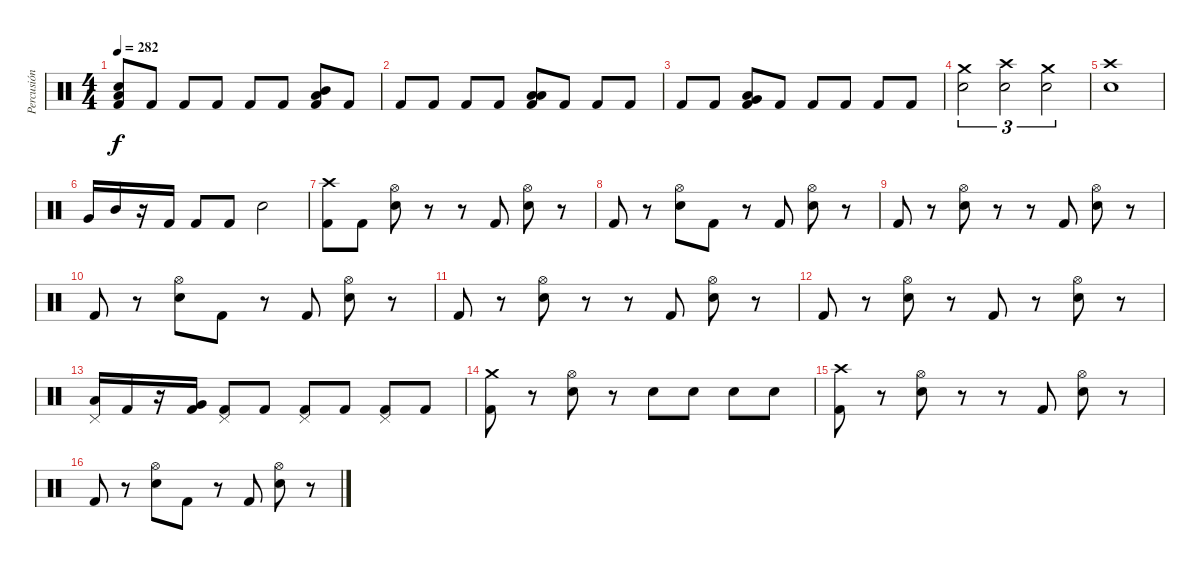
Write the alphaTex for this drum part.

\track ("Percusión" "Percusión") {instrument percussion}
\staff {score}
\articulation defaults
\ts (4 4)
\tempo 282
\clef neutral
\ks c
("Kick (hit) 2" "Snare (hit) 2" "Low Floor Tom (hit)").8{dy f} "Kick (hit) 2".8 "Kick (hit) 2".8 "Kick (hit) 2".8 "Kick (hit) 2".8 "Kick (hit) 2".8 ("Kick (hit) 2" "Mid Tom (hit)" "Low Floor Tom (hit)").8 "Kick (hit) 2".8 |
"Kick (hit) 2".8 "Kick (hit) 2".8 "Kick (hit) 2".8 "Kick (hit) 2".8 ("Kick (hit) 2" "Low Tom (hit)" "Low Floor Tom (hit)").8 "Kick (hit) 2".8 "Kick (hit) 2".8 "Kick (hit) 2".8 |
"Kick (hit) 2".8 "Kick (hit) 2".8 ("Kick (hit) 2" "Very Low Tom (hit)" "Low Floor Tom (hit)").8 "Kick (hit) 2".8 "Kick (hit) 2".8 "Kick (hit) 2".8 "Kick (hit) 2".8 "Kick (hit) 2".8 |
("Snare (hit) 2" "Crash medium (hit)").2{tu (3 2)} ("Snare (hit) 2" "Crash high (hit)").2{tu (3 2)} ("Snare (hit) 2" "Crash medium (hit)").2{tu (3 2)} |
("Snare (hit) 2" "Crash high (hit)").1 |
"Very Low Tom (hit)".16 "Mid Tom (hit)".16 r.16 "Kick (hit) 2".16 "Kick (hit) 2".8 "Kick (hit) 2".8 "Snare (hit) 2".2 |
("Kick (hit) 2" "Crash high (hit)").8 "Kick (hit) 2".8 ("Snare (hit) 2" "Hi-Hat (open)").8 r.8 r.8 "Kick (hit) 2".8 ("Snare (hit) 2" "Hi-Hat (open)").8 r.8 |
"Kick (hit) 2".8 r.8 ("Snare (hit) 2" "Hi-Hat (open)").8 "Kick (hit) 2".8 r.8 "Kick (hit) 2".8 ("Snare (hit) 2" "Hi-Hat (open)").8 r.8 |
"Kick (hit) 2".8 r.8 ("Snare (hit) 2" "Hi-Hat (open)").8 r.8 r.8 "Kick (hit) 2".8 ("Snare (hit) 2" "Hi-Hat (open)").8 r.8 |
"Kick (hit) 2".8 r.8 ("Snare (hit) 2" "Hi-Hat (open)").8 "Kick (hit) 2".8 r.8 "Kick (hit) 2".8 ("Snare (hit) 2" "Hi-Hat (open)").8 r.8 |
"Kick (hit) 2".8 r.8 ("Snare (hit) 2" "Hi-Hat (open)").8 r.8 r.8 "Kick (hit) 2".8 ("Snare (hit) 2" "Hi-Hat (open)").8 r.8 |
"Kick (hit) 2".8 r.8 ("Snare (hit) 2" "Hi-Hat (open)").8 r.8 "Kick (hit) 2".8 r.8 ("Snare (hit) 2" "Hi-Hat (open)").8 r.8 |
("Low Tom (hit)" "Pedal Hi-Hat (hit)").16 "Kick (hit) 2".16 r.16 ("Kick (hit) 2" "Very Low Tom (hit)").16 ("Kick (hit) 2" "Pedal Hi-Hat (hit)").8 "Kick (hit) 2".8 ("Kick (hit) 2" "Pedal Hi-Hat (hit)").8 "Kick (hit) 2".8 ("Kick (hit) 2" "Pedal Hi-Hat (hit)").8 "Kick (hit) 2".8 |
("Kick (hit) 2" "Crash medium (hit)").8 r.8 ("Snare (hit) 2" "Hi-Hat (open)").8 r.8 "Snare (hit) 2".8 "Snare (hit) 2".8 "Snare (hit) 2".8 "Snare (hit) 2".8 |
("Kick (hit) 2" "Crash high (hit)").8 r.8 ("Snare (hit) 2" "Hi-Hat (open)").8 r.8 r.8 "Kick (hit) 2".8 ("Snare (hit) 2" "Hi-Hat (open)").8 r.8 |
"Kick (hit) 2".8 r.8 ("Snare (hit) 2" "Hi-Hat (open)").8 "Kick (hit) 2".8 r.8 "Kick (hit) 2".8 ("Snare (hit) 2" "Hi-Hat (open)").8 r.8
